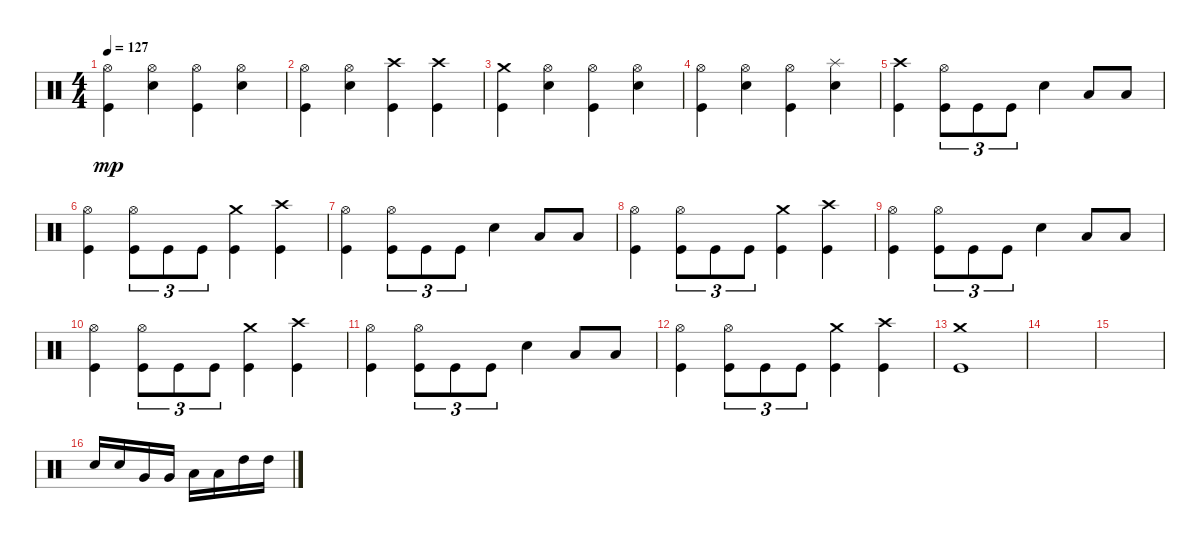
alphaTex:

\track "" {instrument percussion}
\staff {score}
\articulation defaults
\ts (4 4)
\tempo 127
\clef neutral
\ks c
("Hi-Hat (open)" "Kick (hit)").4{dy mp} ("Hi-Hat (open)" "Snare (hit) 2").4 ("Hi-Hat (open)" "Kick (hit)").4 ("Snare (hit) 2" "Hi-Hat (open)").4 |
("Kick (hit)" "Hi-Hat (open)").4 ("Snare (hit) 2" "Hi-Hat (open)").4 ("Crash high (hit)" "Kick (hit)").4 ("Crash high (hit)" "Kick (hit)").4 |
("Kick (hit)" "Crash medium (hit)").4 ("Snare (hit) 2" "Hi-Hat (open)").4 ("Kick (hit)" "Hi-Hat (open)").4 ("Snare (hit) 2" "Hi-Hat (open)").4 |
("Hi-Hat (open)" "Kick (hit)").4 ("Hi-Hat (open)" "Snare (hit) 2").4 ("Hi-Hat (open)" "Kick (hit)").4 ("Snare (hit) 2" "Splash (hit)").4 |
("Kick (hit)" "Crash high (hit)").4 ("Kick (hit)" "Hi-Hat (open)").8{tu (3 2)} "Kick (hit)".8{tu (3 2)} "Kick (hit)".8{tu (3 2)} "Snare (hit) 2".4 "Low Floor Tom (hit)".8 "Low Floor Tom (hit)".8 |
("Kick (hit)" "Hi-Hat (open)").4 ("Kick (hit)" "Hi-Hat (open)").8{tu (3 2)} "Kick (hit)".8{tu (3 2)} "Kick (hit)".8{tu (3 2)} ("Kick (hit)" "Crash medium (hit)").4 ("Crash high (hit)" "Kick (hit)").4 |
("Kick (hit)" "Hi-Hat (open)").4 ("Kick (hit)" "Hi-Hat (open)").8{tu (3 2)} "Kick (hit)".8{tu (3 2)} "Kick (hit)".8{tu (3 2)} "Snare (hit) 2".4 "Low Floor Tom (hit)".8 "Low Floor Tom (hit)".8 |
("Kick (hit)" "Hi-Hat (open)").4 ("Kick (hit)" "Hi-Hat (open)").8{tu (3 2)} "Kick (hit)".8{tu (3 2)} "Kick (hit)".8{tu (3 2)} ("Kick (hit)" "Crash medium (hit)").4 ("Crash high (hit)" "Kick (hit)").4 |
("Kick (hit)" "Hi-Hat (open)").4 ("Kick (hit)" "Hi-Hat (open)").8{tu (3 2)} "Kick (hit)".8{tu (3 2)} "Kick (hit)".8{tu (3 2)} "Snare (hit) 2".4 "Low Floor Tom (hit)".8 "Low Floor Tom (hit)".8 |
("Kick (hit)" "Hi-Hat (open)").4 ("Kick (hit)" "Hi-Hat (open)").8{tu (3 2)} "Kick (hit)".8{tu (3 2)} "Kick (hit)".8{tu (3 2)} ("Kick (hit)" "Crash medium (hit)").4 ("Crash high (hit)" "Kick (hit)").4 |
("Kick (hit)" "Hi-Hat (open)").4 ("Kick (hit)" "Hi-Hat (open)").8{tu (3 2)} "Kick (hit)".8{tu (3 2)} "Kick (hit)".8{tu (3 2)} "Snare (hit) 2".4 "Low Floor Tom (hit)".8 "Low Floor Tom (hit)".8 |
("Kick (hit)" "Hi-Hat (open)").4 ("Kick (hit)" "Hi-Hat (open)").8{tu (3 2)} "Kick (hit)".8{tu (3 2)} "Kick (hit)".8{tu (3 2)} ("Kick (hit)" "Crash medium (hit)").4 ("Crash high (hit)" "Kick (hit)").4 |
("Crash medium (hit)" "Kick (hit)").1 |
|
|
"Snare (hit) 2".16 "Snare (hit) 2".16 "Very Low Tom (hit)".16 "Very Low Tom (hit)".16 "Low Tom (hit)".16 "Low Tom (hit)".16 "High Tom (hit)".16 "High Tom (hit)".16
